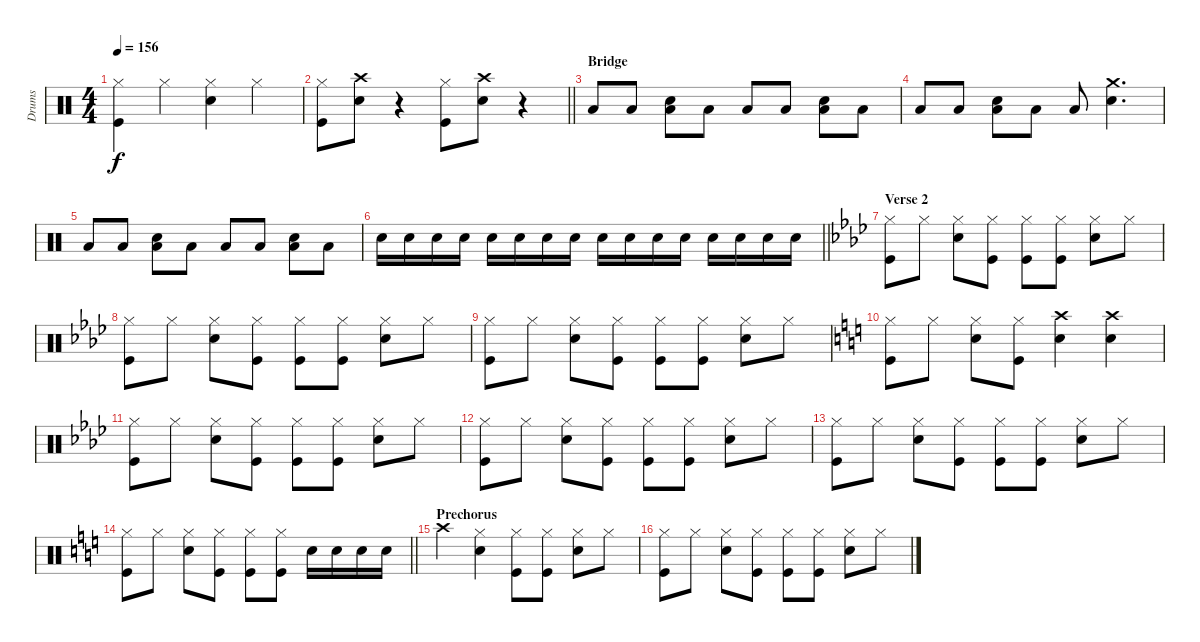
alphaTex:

\track ("Drums" "Drums") {instrument percussion}
\staff {score}
\articulation defaults
\ts (4 4)
\tempo 156
\clef neutral
\ks c
("Hi-Hat (closed)" "Kick (hit)").4{dy f} "Hi-Hat (closed)".4 ("Hi-Hat (closed)" "Snare (hit) 2").4 "Hi-Hat (closed)".4 |
\barLineRight lightlight
("Hi-Hat (closed)" "Kick (hit)").8 ("Crash high (hit)" "Snare (hit) 2").8 r.4 ("Hi-Hat (closed)" "Kick (hit)").8 ("Crash high (hit)" "Snare (hit) 2").8 r.4 |
\section ("" "Bridge")
"Low Tom (hit)".8 "Low Tom (hit)".8 ("Snare (hit) 2" "Low Tom (hit)").8 "Low Tom (hit)".8 "Low Tom (hit)".8 "Low Tom (hit)".8 ("Snare (hit) 2" "Low Tom (hit)").8 "Low Tom (hit)".8 |
"Low Tom (hit)".8 "Low Tom (hit)".8 ("Snare (hit) 2" "Low Tom (hit)").8 "Low Tom (hit)".8 "Low Tom (hit)".8 ("Crash medium (hit)" "Snare (hit) 2").4{d} |
"Low Tom (hit)".8 "Low Tom (hit)".8 ("Snare (hit) 2" "Low Tom (hit)").8 "Low Tom (hit)".8 "Low Tom (hit)".8 "Low Tom (hit)".8 ("Snare (hit) 2" "Low Tom (hit)").8 "Low Tom (hit)".8 |
\barLineRight lightlight "Snare (hit) 2".16 "Snare (hit) 2".16 "Snare (hit) 2".16 "Snare (hit) 2".16 "Snare (hit) 2".16 "Snare (hit) 2".16 "Snare (hit) 2".16 "Snare (hit) 2".16 "Snare (hit) 2".16 "Snare (hit) 2".16 "Snare (hit) 2".16 "Snare (hit) 2".16 "Snare (hit) 2".16 "Snare (hit) 2".16 "Snare (hit) 2".16 "Snare (hit) 2".16
|
\section ("" "Verse 2")
\ks ab
("Hi-Hat (closed)" "Kick (hit)").8 "Hi-Hat (closed)".8 ("Hi-Hat (closed)" "Snare (hit) 2").8 ("Hi-Hat (closed)" "Kick (hit)").8 ("Hi-Hat (closed)" "Kick (hit)").8 ("Hi-Hat (closed)" "Kick (hit)").8 ("Hi-Hat (closed)" "Snare (hit) 2").8 "Hi-Hat (closed)".8 |
("Hi-Hat (closed)" "Kick (hit)").8 "Hi-Hat (closed)".8 ("Hi-Hat (closed)" "Snare (hit) 2").8 ("Hi-Hat (closed)" "Kick (hit)").8 ("Hi-Hat (closed)" "Kick (hit)").8 ("Hi-Hat (closed)" "Kick (hit)").8 ("Hi-Hat (closed)" "Snare (hit) 2").8 "Hi-Hat (closed)".8 |
("Hi-Hat (closed)" "Kick (hit)").8 "Hi-Hat (closed)".8 ("Hi-Hat (closed)" "Snare (hit) 2").8 ("Hi-Hat (closed)" "Kick (hit)").8 ("Hi-Hat (closed)" "Kick (hit)").8 ("Hi-Hat (closed)" "Kick (hit)").8 ("Hi-Hat (closed)" "Snare (hit) 2").8 "Hi-Hat (closed)".8 |
\ks c
("Hi-Hat (closed)" "Kick (hit)").8 "Hi-Hat (closed)".8 ("Hi-Hat (closed)" "Snare (hit) 2").8 ("Hi-Hat (closed)" "Kick (hit)").8 ("Snare (hit) 2" "Crash high (hit)").4 ("Snare (hit) 2" "Crash high (hit)").4 |
\ks ab
("Hi-Hat (closed)" "Kick (hit)").8 "Hi-Hat (closed)".8 ("Hi-Hat (closed)" "Snare (hit) 2").8 ("Hi-Hat (closed)" "Kick (hit)").8 ("Hi-Hat (closed)" "Kick (hit)").8 ("Hi-Hat (closed)" "Kick (hit)").8 ("Hi-Hat (closed)" "Snare (hit) 2").8 "Hi-Hat (closed)".8 |
("Hi-Hat (closed)" "Kick (hit)").8 "Hi-Hat (closed)".8 ("Hi-Hat (closed)" "Snare (hit) 2").8 ("Hi-Hat (closed)" "Kick (hit)").8 ("Hi-Hat (closed)" "Kick (hit)").8 ("Hi-Hat (closed)" "Kick (hit)").8 ("Hi-Hat (closed)" "Snare (hit) 2").8 "Hi-Hat (closed)".8 |
("Hi-Hat (closed)" "Kick (hit)").8 "Hi-Hat (closed)".8 ("Hi-Hat (closed)" "Snare (hit) 2").8 ("Hi-Hat (closed)" "Kick (hit)").8 ("Hi-Hat (closed)" "Kick (hit)").8 ("Hi-Hat (closed)" "Kick (hit)").8 ("Hi-Hat (closed)" "Snare (hit) 2").8 "Hi-Hat (closed)".8 |
\barLineRight lightlight
\ks c
("Hi-Hat (closed)" "Kick (hit)").8 "Hi-Hat (closed)".8 ("Hi-Hat (closed)" "Snare (hit) 2").8 ("Hi-Hat (closed)" "Kick (hit)").8 ("Hi-Hat (closed)" "Kick (hit)").8 ("Hi-Hat (closed)" "Kick (hit)").8 "Snare (hit) 2".16 "Snare (hit) 2".16 "Snare (hit) 2".16 "Snare (hit) 2".16 |
\section ("" "Prechorus")
"Crash high (hit)".4 ("Hi-Hat (closed)" "Snare (hit) 2").4 ("Hi-Hat (closed)" "Kick (hit)").8 ("Hi-Hat (closed)" "Kick (hit)").8 ("Hi-Hat (closed)" "Snare (hit) 2").8 "Hi-Hat (closed)".8 |
("Hi-Hat (closed)" "Kick (hit)").8 "Hi-Hat (closed)".8 ("Hi-Hat (closed)" "Snare (hit) 2").8 ("Hi-Hat (closed)" "Kick (hit)").8 ("Hi-Hat (closed)" "Kick (hit)").8 ("Hi-Hat (closed)" "Kick (hit)").8 ("Hi-Hat (closed)" "Snare (hit) 2").8 "Hi-Hat (closed)".8
